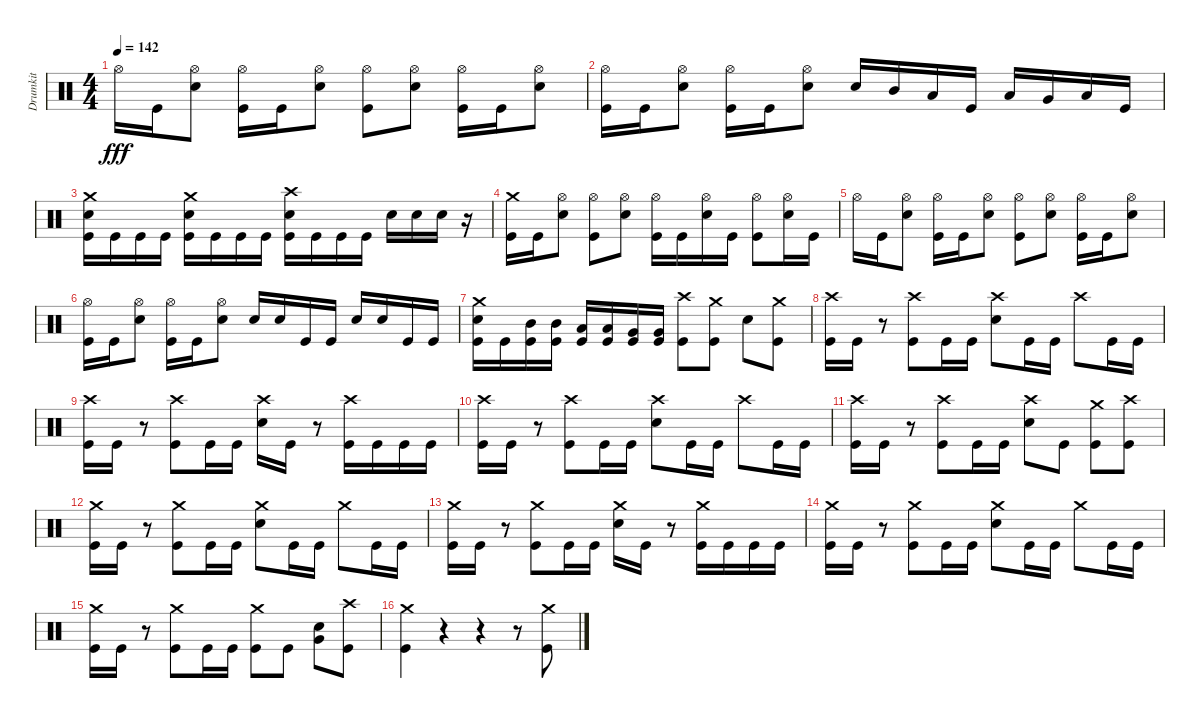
\track ("Drumkit" "Drumkit") {instrument percussion}
\staff {score}
\articulation defaults
\ts (4 4)
\tempo 142
\clef neutral
\ks c "Hi-Hat (open)".16{dy fff} "Kick (hit)".16
("Hi-Hat (open)" "Snare (hit) 2").8 ("Kick (hit)" "Hi-Hat (open)").16 "Kick (hit)".16 ("Hi-Hat (open)" "Snare (hit) 2").8 ("Hi-Hat (open)" "Kick (hit)").8 ("Hi-Hat (open)" "Snare (hit) 2").8 ("Kick (hit)" "Hi-Hat (open)").16 "Kick (hit)".16 ("Hi-Hat (open)" "Snare (hit) 2").8 |
("Kick (hit)" "Hi-Hat (open)").16 "Kick (hit)".16 ("Hi-Hat (open)" "Snare (hit) 2").8 ("Kick (hit)" "Hi-Hat (open)").16 "Kick (hit)".16 ("Hi-Hat (open)" "Snare (hit) 2").8 "Snare (hit) 2".16 "Mid Tom (hit)".16 "Low Tom (hit)".16 "Kick (hit)".16 "Low Tom (hit)".16 "Very Low Tom (hit)".16 "Low Floor Tom (hit)".16 "Kick (hit)".16 |
("Kick (hit)" "Snare (hit) 2" "Crash medium (hit)").16 "Kick (hit)".16 "Kick (hit)".16 "Kick (hit)".16 ("Kick (hit)" "Snare (hit) 2" "Crash medium (hit)").16 "Kick (hit)".16 "Kick (hit)".16 "Kick (hit)".16 ("Kick (hit)" "Snare (hit) 2" "Crash high (hit)").16 "Kick (hit)".16 "Kick (hit)".16 "Kick (hit)".16 "Snare (hit) 2".16 "Snare (hit) 2".16 "Snare (hit) 2".16 r.16 |
("Kick (hit)" "Crash medium (hit)").16 "Kick (hit)".16 ("Hi-Hat (open)" "Snare (hit) 2").8 ("Hi-Hat (open)" "Kick (hit)").8 ("Hi-Hat (open)" "Snare (hit) 2").8 ("Kick (hit)" "Hi-Hat (open)").16 "Kick (hit)".16 ("Hi-Hat (open)" "Snare (hit) 2").16 "Kick (hit)".16 ("Hi-Hat (open)" "Kick (hit)").8 ("Snare (hit) 2" "Hi-Hat (open)").16 "Kick (hit)".16 |
"Hi-Hat (open)".16 "Kick (hit)".16 ("Hi-Hat (open)" "Snare (hit) 2").8 ("Kick (hit)" "Hi-Hat (open)").16 "Kick (hit)".16 ("Hi-Hat (open)" "Snare (hit) 2").8 ("Hi-Hat (open)" "Kick (hit)").8 ("Hi-Hat (open)" "Snare (hit) 2").8 ("Kick (hit)" "Hi-Hat (open)").16 "Kick (hit)".16 ("Hi-Hat (open)" "Snare (hit) 2").8 |
("Kick (hit)" "Hi-Hat (open)").16 "Kick (hit)".16 ("Hi-Hat (open)" "Snare (hit) 2").8 ("Kick (hit)" "Hi-Hat (open)").16 "Kick (hit)".16 ("Hi-Hat (open)" "Snare (hit) 2").8 "Snare (hit) 2".16 "Snare (hit) 2".16 "Kick (hit)".16 "Kick (hit)".16 "Snare (hit) 2".16 "Snare (hit) 2".16 "Kick (hit)".16 "Kick (hit)".16 |
("Kick (hit)" "Snare (hit) 2" "Crash medium (hit)").16 "Kick (hit)".16 ("Kick (hit)" "Mid Tom (hit)").16 ("Kick (hit)" "Mid Tom (hit)").16 ("Kick (hit)" "Low Tom (hit)").16 ("Kick (hit)" "Low Tom (hit)").16 ("Kick (hit)" "Very Low Tom (hit)").16 ("Kick (hit)" "Very Low Tom (hit)").16 ("Kick (hit)" "Crash high (hit)").8 ("Kick (hit)" "Crash medium (hit)").8 "Snare (hit) 2".8 ("Kick (hit)" "Crash medium (hit)").8 |
("Kick (hit)" "Crash high (hit)").16 "Kick (hit)".16 r.8 ("Crash high (hit)" "Kick (hit)").8 "Kick (hit)".16 "Kick (hit)".16 ("Snare (hit) 2" "Crash high (hit)").8 "Kick (hit)".16 "Kick (hit)".16 "Crash high (hit)".8 "Kick (hit)".16 "Kick (hit)".16 |
("Kick (hit)" "Crash high (hit)").16 "Kick (hit)".16 r.8 ("Crash high (hit)" "Kick (hit)").8 "Kick (hit)".16 "Kick (hit)".16 ("Crash high (hit)" "Snare (hit) 2").16 "Kick (hit)".16 r.8 ("Kick (hit)" "Crash high (hit)").16 "Kick (hit)".16 "Kick (hit)".16 "Kick (hit)".16 |
("Kick (hit)" "Crash high (hit)").16 "Kick (hit)".16 r.8 ("Crash high (hit)" "Kick (hit)").8 "Kick (hit)".16 "Kick (hit)".16 ("Snare (hit) 2" "Crash high (hit)").8 "Kick (hit)".16 "Kick (hit)".16 "Crash high (hit)".8 "Kick (hit)".16 "Kick (hit)".16 |
("Kick (hit)" "Crash high (hit)").16 "Kick (hit)".16 r.8 ("Crash high (hit)" "Kick (hit)").8 "Kick (hit)".16 "Kick (hit)".16 ("Crash high (hit)" "Snare (hit) 2").8 "Kick (hit)".8 ("Kick (hit)" "Crash medium (hit)").8 ("Kick (hit)" "Crash high (hit)").8 |
("Kick (hit)" "Crash medium (hit)").16 "Kick (hit)".16 r.8 ("Kick (hit)" "Crash medium (hit)").8 "Kick (hit)".16 "Kick (hit)".16 ("Snare (hit) 2" "Crash medium (hit)").8 "Kick (hit)".16 "Kick (hit)".16 "Crash medium (hit)".8 "Kick (hit)".16 "Kick (hit)".16 |
("Kick (hit)" "Crash medium (hit)").16 "Kick (hit)".16 r.8 ("Kick (hit)" "Crash medium (hit)").8 "Kick (hit)".16 "Kick (hit)".16 ("Snare (hit) 2" "Crash medium (hit)").16 "Kick (hit)".16 r.8 ("Kick (hit)" "Crash medium (hit)").16 "Kick (hit)".16 "Kick (hit)".16 "Kick (hit)".16 |
("Kick (hit)" "Crash medium (hit)").16 "Kick (hit)".16 r.8 ("Kick (hit)" "Crash medium (hit)").8 "Kick (hit)".16 "Kick (hit)".16 ("Snare (hit) 2" "Crash medium (hit)").8 "Kick (hit)".16 "Kick (hit)".16 "Crash medium (hit)".8 "Kick (hit)".16 "Kick (hit)".16 |
("Kick (hit)" "Crash medium (hit)").16 "Kick (hit)".16 r.8 ("Kick (hit)" "Crash medium (hit)").8 "Kick (hit)".16 "Kick (hit)".16 ("Crash medium (hit)" "Kick (hit)").8 "Kick (hit)".8 ("Snare (hit) 2" "Very Low Tom (hit)").8 ("Kick (hit)" "Crash high (hit)").8 |
("Kick (hit)" "Crash medium (hit)").4 r.4 r.4 r.8 ("Kick (hit)" "Crash medium (hit)").8
